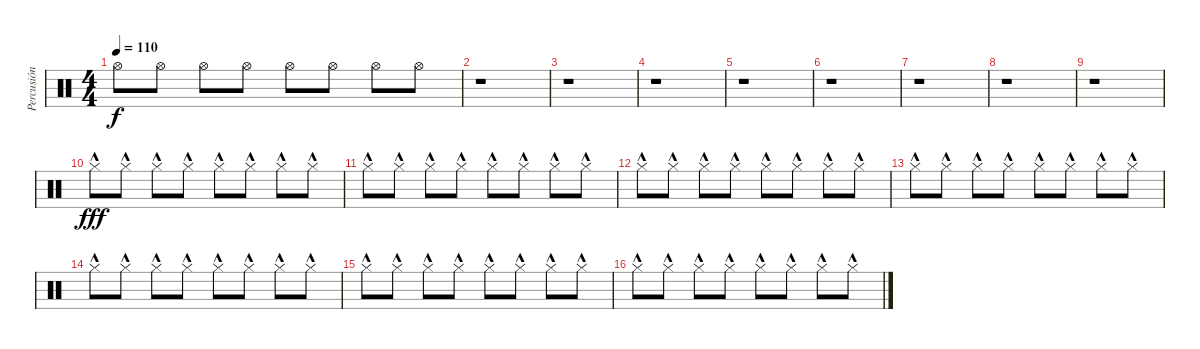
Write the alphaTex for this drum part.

\track ("Percusión" "Percusión") {instrument percussion}
\staff {score}
\articulation defaults
\ts (4 4)
\tempo 110
\clef neutral
\ks c "Hi-Hat (open)".8{dy f} "Hi-Hat (open)".8 "Hi-Hat (open)".8 "Hi-Hat (open)".8 "Hi-Hat (open)".8 "Hi-Hat (open)".8 "Hi-Hat (open)".8 "Hi-Hat (open)".8
|
r.1 |
r.1 |
r.1 |
r.1 |
r.1 |
r.1 |
r.1 |
r.1 |
"Hi-Hat (closed)"{hac}.8{dy fff} "Hi-Hat (closed)"{hac}.8 "Hi-Hat (closed)"{hac}.8 "Hi-Hat (closed)"{hac}.8 "Hi-Hat (closed)"{hac}.8 "Hi-Hat (closed)"{hac}.8 "Hi-Hat (closed)"{hac}.8 "Hi-Hat (closed)"{hac}.8 |
"Hi-Hat (closed)"{hac}.8 "Hi-Hat (closed)"{hac}.8 "Hi-Hat (closed)"{hac}.8 "Hi-Hat (closed)"{hac}.8 "Hi-Hat (closed)"{hac}.8 "Hi-Hat (closed)"{hac}.8 "Hi-Hat (closed)"{hac}.8 "Hi-Hat (closed)"{hac}.8 |
"Hi-Hat (closed)"{hac}.8 "Hi-Hat (closed)"{hac}.8 "Hi-Hat (closed)"{hac}.8 "Hi-Hat (closed)"{hac}.8 "Hi-Hat (closed)"{hac}.8 "Hi-Hat (closed)"{hac}.8 "Hi-Hat (closed)"{hac}.8 "Hi-Hat (closed)"{hac}.8 |
"Hi-Hat (closed)"{hac}.8 "Hi-Hat (closed)"{hac}.8 "Hi-Hat (closed)"{hac}.8 "Hi-Hat (closed)"{hac}.8 "Hi-Hat (closed)"{hac}.8 "Hi-Hat (closed)"{hac}.8 "Hi-Hat (closed)"{hac}.8 "Hi-Hat (closed)"{hac}.8 |
"Hi-Hat (closed)"{hac}.8 "Hi-Hat (closed)"{hac}.8 "Hi-Hat (closed)"{hac}.8 "Hi-Hat (closed)"{hac}.8 "Hi-Hat (closed)"{hac}.8 "Hi-Hat (closed)"{hac}.8 "Hi-Hat (closed)"{hac}.8 "Hi-Hat (closed)"{hac}.8 |
"Hi-Hat (closed)"{hac}.8 "Hi-Hat (closed)"{hac}.8 "Hi-Hat (closed)"{hac}.8 "Hi-Hat (closed)"{hac}.8 "Hi-Hat (closed)"{hac}.8 "Hi-Hat (closed)"{hac}.8 "Hi-Hat (closed)"{hac}.8 "Hi-Hat (closed)"{hac}.8 |
"Hi-Hat (closed)"{hac}.8 "Hi-Hat (closed)"{hac}.8 "Hi-Hat (closed)"{hac}.8 "Hi-Hat (closed)"{hac}.8 "Hi-Hat (closed)"{hac}.8 "Hi-Hat (closed)"{hac}.8 "Hi-Hat (closed)"{hac}.8 "Hi-Hat (closed)"{hac}.8
